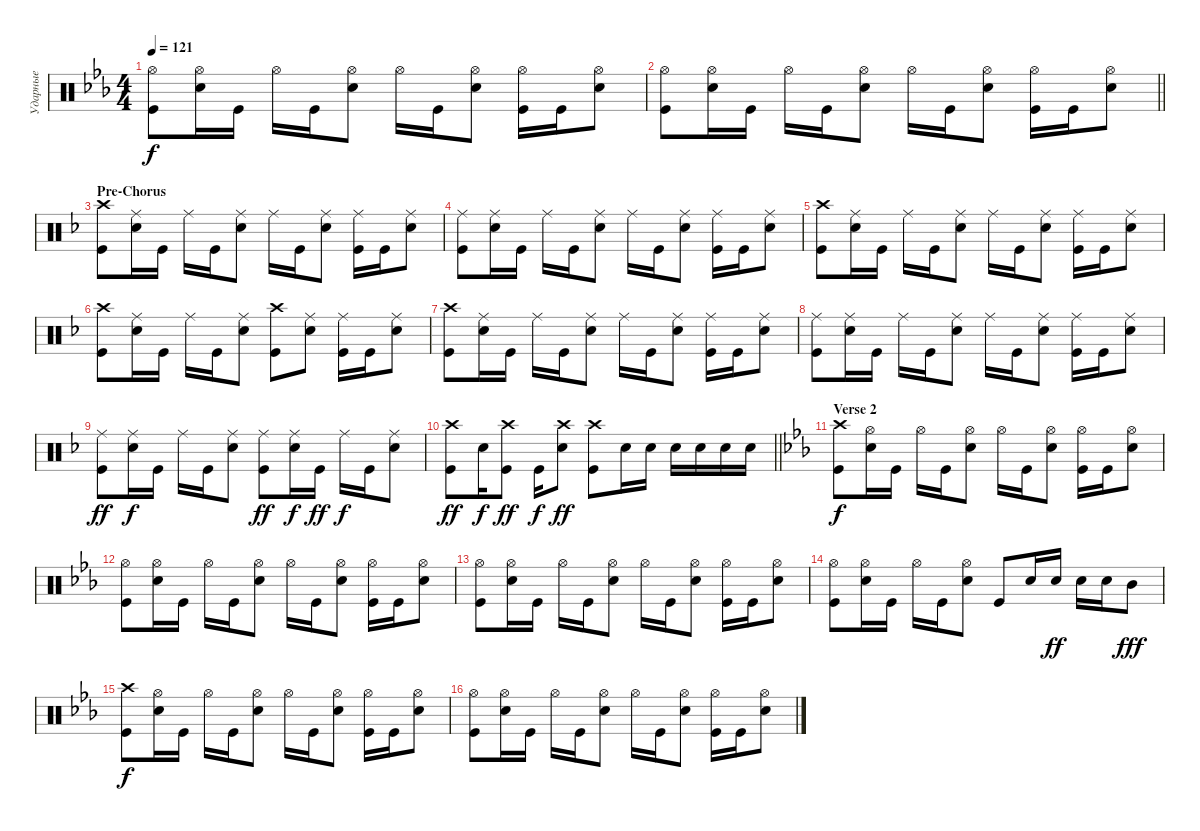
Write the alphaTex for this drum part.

\track ("Ударные" "Ударные") {instrument percussion}
\staff {score}
\articulation defaults
\ts (4 4)
\tempo 121
\clef neutral
\ks cminor
("Kick (hit)" "Hi-Hat (open)").8{dy f} ("Snare (hit) 2" "Hi-Hat (open)").16 "Kick (hit)".16 "Hi-Hat (open)".16 "Kick (hit)".16 ("Snare (hit) 2" "Hi-Hat (open)").8 "Hi-Hat (open)".16 "Kick (hit)".16 ("Snare (hit) 2" "Hi-Hat (open)").8 ("Kick (hit)" "Hi-Hat (open)").16 "Kick (hit)".16 ("Snare (hit) 2" "Hi-Hat (open)").8 |
\barLineRight lightlight
("Kick (hit)" "Hi-Hat (open)").8 ("Snare (hit) 2" "Hi-Hat (open)").16 "Kick (hit)".16 "Hi-Hat (open)".16 "Kick (hit)".16 ("Snare (hit) 2" "Hi-Hat (open)").8 "Hi-Hat (open)".16 "Kick (hit)".16 ("Snare (hit) 2" "Hi-Hat (open)").8 ("Kick (hit)" "Hi-Hat (open)").16 "Kick (hit)".16 ("Snare (hit) 2" "Hi-Hat (open)").8 |
\section ("" "Pre-Chorus")
\ks dminor
("Kick (hit)" "Crash high (hit)").8 ("Snare (hit) 2" "Ride (middle)").16 "Kick (hit)".16 "Ride (middle)".16 "Kick (hit)".16 ("Snare (hit) 2" "Ride (middle)").8 "Ride (middle)".16 "Kick (hit)".16 ("Snare (hit) 2" "Ride (middle)").8 ("Kick (hit)" "Ride (middle)").16 "Kick (hit)".16 ("Snare (hit) 2" "Ride (middle)").8 |
("Kick (hit)" "Ride (middle)").8 ("Snare (hit) 2" "Ride (middle)").16 "Kick (hit)".16 "Ride (middle)".16 "Kick (hit)".16 ("Snare (hit) 2" "Ride (middle)").8 "Ride (middle)".16 "Kick (hit)".16 ("Snare (hit) 2" "Ride (middle)").8 ("Kick (hit)" "Ride (middle)").16 "Kick (hit)".16 ("Snare (hit) 2" "Ride (middle)").8 |
("Kick (hit)" "Crash high (hit)").8 ("Snare (hit) 2" "Ride (middle)").16 "Kick (hit)".16 "Ride (middle)".16 "Kick (hit)".16 ("Snare (hit) 2" "Ride (middle)").8 "Ride (middle)".16 "Kick (hit)".16 ("Snare (hit) 2" "Ride (middle)").8 ("Kick (hit)" "Ride (middle)").16 "Kick (hit)".16 ("Snare (hit) 2" "Ride (middle)").8 |
("Kick (hit)" "Crash high (hit)").8 ("Snare (hit) 2" "Ride (middle)").16 "Kick (hit)".16 "Ride (middle)".16 "Kick (hit)".16 ("Snare (hit) 2" "Ride (middle)").8 ("Kick (hit)" "Crash high (hit)").8 ("Snare (hit) 2" "Ride (middle)").8 ("Kick (hit)" "Ride (middle)").16 "Kick (hit)".16 ("Snare (hit) 2" "Ride (middle)").8 |
("Kick (hit)" "Crash high (hit)").8 ("Snare (hit) 2" "Ride (middle)").16 "Kick (hit)".16 "Ride (middle)".16 "Kick (hit)".16 ("Snare (hit) 2" "Ride (middle)").8 "Ride (middle)".16 "Kick (hit)".16 ("Snare (hit) 2" "Ride (middle)").8 ("Kick (hit)" "Ride (middle)").16 "Kick (hit)".16 ("Snare (hit) 2" "Ride (middle)").8 |
("Kick (hit)" "Ride (middle)").8 ("Snare (hit) 2" "Ride (middle)").16 "Kick (hit)".16 "Ride (middle)".16 "Kick (hit)".16 ("Snare (hit) 2" "Ride (middle)").8 "Ride (middle)".16 "Kick (hit)".16 ("Snare (hit) 2" "Ride (middle)").8 ("Kick (hit)" "Ride (middle)").16 "Kick (hit)".16 ("Snare (hit) 2" "Ride (middle)").8 |
("Kick (hit)" "Ride (middle)").8{dy ff} ("Snare (hit) 2" "Ride (middle)").16{dy f} "Kick (hit)".16 "Ride (middle)".16 "Kick (hit)".16 ("Snare (hit) 2" "Ride (middle)").8 ("Kick (hit)" "Ride (middle)").8{dy ff} ("Snare (hit) 2" "Ride (middle)").16{dy f} "Kick (hit)".16{dy ff} "Ride (middle)".16{dy f} "Kick (hit)".16 ("Snare (hit) 2" "Ride (middle)").8 |
\barLineRight lightlight
("Kick (hit)" "Crash high (hit)").8{dy ff} "Snare (hit) 2".16{dy f} ("Kick (hit)" "Crash high (hit)").8{dy ff} "Kick (hit)".16{dy f} ("Snare (hit) 2" "Crash high (hit)").8{dy ff} ("Kick (hit)" "Crash high (hit)").8 "Snare (hit) 2".16 "Snare (hit) 2".16 "Snare (hit) 2".16 "Snare (hit) 2".16 "Snare (hit) 2".16 "Snare (hit) 2".16 |
\section ("" "Verse 2")
\ks cminor
("Kick (hit)" "Crash high (hit)").8{dy f} ("Snare (hit) 2" "Hi-Hat (open)").16 "Kick (hit)".16 "Hi-Hat (open)".16 "Kick (hit)".16 ("Snare (hit) 2" "Hi-Hat (open)").8 "Hi-Hat (open)".16 "Kick (hit)".16 ("Snare (hit) 2" "Hi-Hat (open)").8 ("Kick (hit)" "Hi-Hat (open)").16 "Kick (hit)".16 ("Snare (hit) 2" "Hi-Hat (open)").8 |
("Kick (hit)" "Hi-Hat (open)").8 ("Snare (hit) 2" "Hi-Hat (open)").16 "Kick (hit)".16 "Hi-Hat (open)".16 "Kick (hit)".16 ("Snare (hit) 2" "Hi-Hat (open)").8 "Hi-Hat (open)".16 "Kick (hit)".16 ("Snare (hit) 2" "Hi-Hat (open)").8 ("Kick (hit)" "Hi-Hat (open)").16 "Kick (hit)".16 ("Snare (hit) 2" "Hi-Hat (open)").8 |
("Kick (hit)" "Hi-Hat (open)").8 ("Snare (hit) 2" "Hi-Hat (open)").16 "Kick (hit)".16 "Hi-Hat (open)".16 "Kick (hit)".16 ("Snare (hit) 2" "Hi-Hat (open)").8 "Hi-Hat (open)".16 "Kick (hit)".16 ("Snare (hit) 2" "Hi-Hat (open)").8 ("Kick (hit)" "Hi-Hat (open)").16 "Kick (hit)".16 ("Snare (hit) 2" "Hi-Hat (open)").8 |
("Kick (hit)" "Hi-Hat (open)").8 ("Snare (hit) 2" "Hi-Hat (open)").16 "Kick (hit)".16 "Hi-Hat (open)".16 "Kick (hit)".16 ("Snare (hit) 2" "Hi-Hat (open)").8 "Kick (hit)".8 "Snare (hit) 2".16 "Snare (hit) 2".16{dy ff} "Snare (hit) 2".16 "Snare (hit) 2".16 "Mid Tom (hit)".8{dy fff} |
("Kick (hit)" "Crash high (hit)").8{dy f} ("Snare (hit) 2" "Hi-Hat (open)").16 "Kick (hit)".16 "Hi-Hat (open)".16 "Kick (hit)".16 ("Snare (hit) 2" "Hi-Hat (open)").8 "Hi-Hat (open)".16 "Kick (hit)".16 ("Snare (hit) 2" "Hi-Hat (open)").8 ("Kick (hit)" "Hi-Hat (open)").16 "Kick (hit)".16 ("Snare (hit) 2" "Hi-Hat (open)").8 |
("Kick (hit)" "Hi-Hat (open)").8 ("Snare (hit) 2" "Hi-Hat (open)").16 "Kick (hit)".16 "Hi-Hat (open)".16 "Kick (hit)".16 ("Snare (hit) 2" "Hi-Hat (open)").8 "Hi-Hat (open)".16 "Kick (hit)".16 ("Snare (hit) 2" "Hi-Hat (open)").8 ("Kick (hit)" "Hi-Hat (open)").16 "Kick (hit)".16 ("Snare (hit) 2" "Hi-Hat (open)").8
